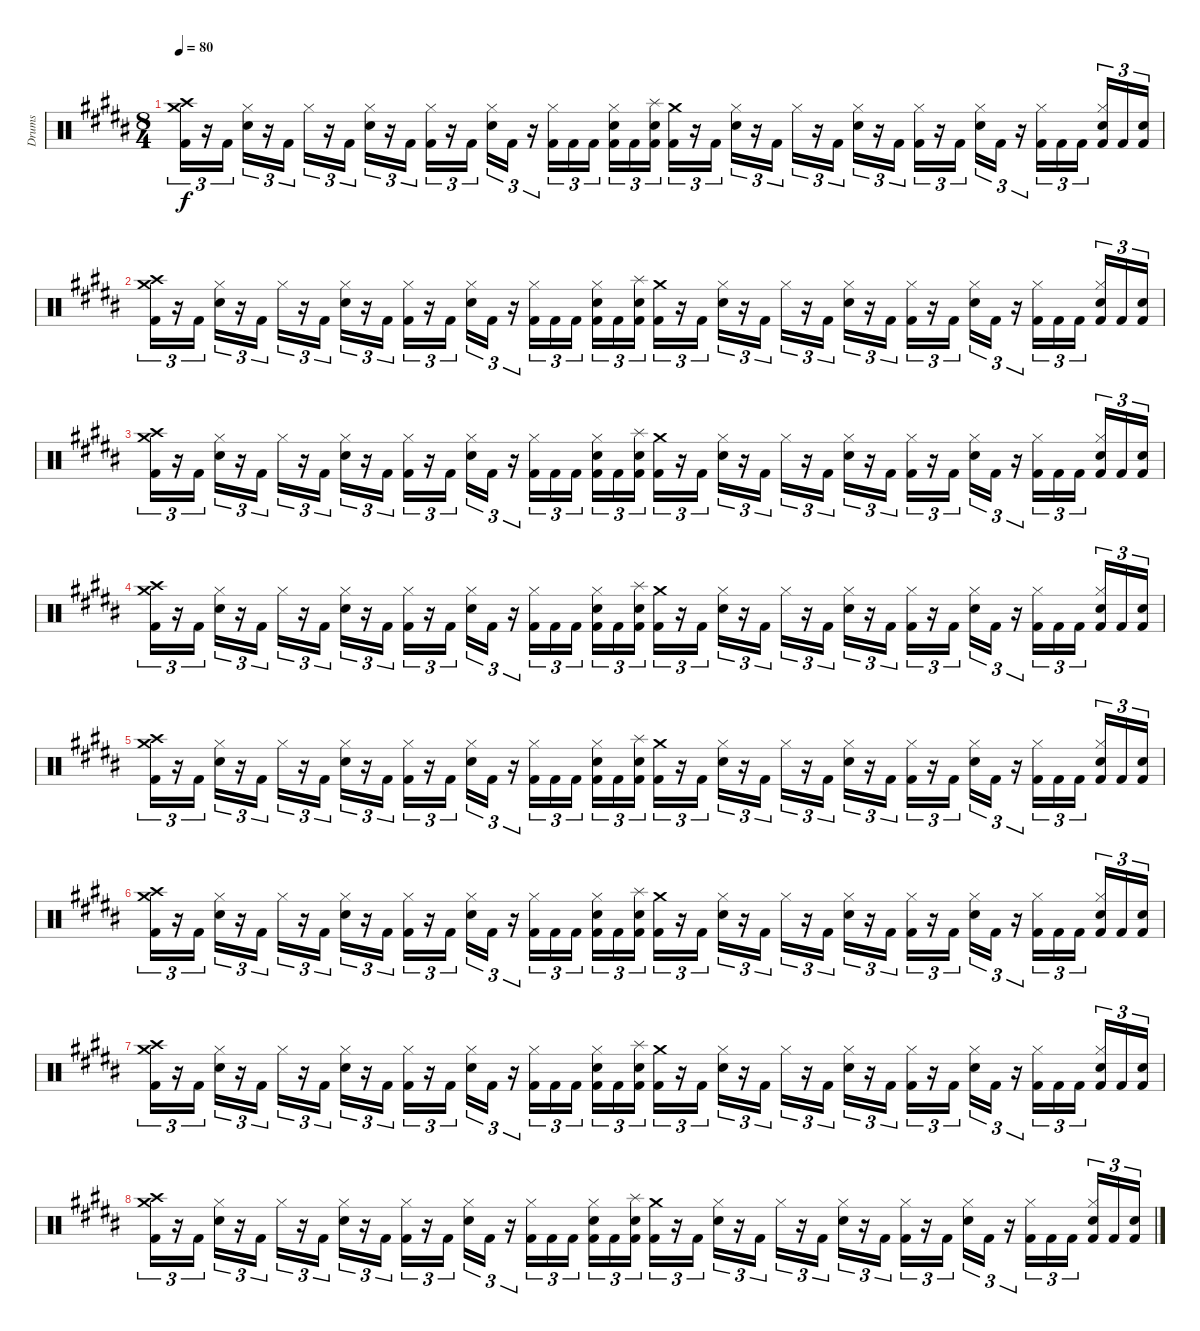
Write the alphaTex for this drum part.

\track ("Drums" "Drums") {instrument percussion}
\staff {score}
\articulation defaults
\ts (8 4)
\tempo 80
\clef neutral
\ks g#minor
("Crash medium (hit)" "Crash high (hit)" "Kick (hit) 2").16{tu (3 2) dy f} r.16{tu (3 2)} "Kick (hit) 2".16{tu (3 2)} ("Hi-Hat (closed)" "Snare (hit) 2").16{tu (3 2)} r.16{tu (3 2)} "Kick (hit) 2".16{tu (3 2)} "Hi-Hat (closed)".16{tu (3 2)} r.16{tu (3 2)} "Kick (hit) 2".16{tu (3 2)} ("Hi-Hat (closed)" "Snare (hit) 2").16{tu (3 2)} r.16{tu (3 2)} "Kick (hit) 2".16{tu (3 2)} ("Hi-Hat (closed)" "Kick (hit) 2").16{tu (3 2)} r.16{tu (3 2)} "Kick (hit) 2".16{tu (3 2)} ("Hi-Hat (closed)" "Snare (hit) 2").16{tu (3 2)} "Kick (hit) 2".16{tu (3 2)} r.16{tu (3 2)} ("Hi-Hat (closed)" "Kick (hit) 2").16{tu (3 2)} "Kick (hit) 2".16{tu (3 2)} "Kick (hit) 2".16{tu (3 2)} ("Hi-Hat (closed)" "Snare (hit) 2" "Kick (hit) 2").16{tu (3 2)} "Kick (hit) 2".16{tu (3 2)} ("Splash (hit)" "Snare (hit) 2" "Kick (hit) 2").16{tu (3 2)} ("Crash medium (hit)" "Kick (hit) 2").16{tu (3 2)} r.16{tu (3 2)} "Kick (hit) 2".16{tu (3 2)} ("Hi-Hat (closed)" "Snare (hit) 2").16{tu (3 2)} r.16{tu (3 2)} "Kick (hit) 2".16{tu (3 2)} "Hi-Hat (closed)".16{tu (3 2)} r.16{tu (3 2)} "Kick (hit) 2".16{tu (3 2)} ("Hi-Hat (closed)" "Snare (hit) 2").16{tu (3 2)} r.16{tu (3 2)} "Kick (hit) 2".16{tu (3 2)} ("Hi-Hat (closed)" "Kick (hit) 2").16{tu (3 2)} r.16{tu (3 2)} "Kick (hit) 2".16{tu (3 2)} ("Hi-Hat (closed)" "Snare (hit) 2").16{tu (3 2)} "Kick (hit) 2".16{tu (3 2)} r.16{tu (3 2)} ("Hi-Hat (closed)" "Kick (hit) 2").16{tu (3 2)} "Kick (hit) 2".16{tu (3 2)} "Kick (hit) 2".16{tu (3 2)} ("Hi-Hat (closed)" "Snare (hit) 2" "Kick (hit) 2").16{tu (3 2)} "Kick (hit) 2".16{tu (3 2)} ("Snare (hit) 2" "Kick (hit) 2").16{tu (3 2)} |
("Crash medium (hit)" "Crash high (hit)" "Kick (hit) 2").16{tu (3 2)} r.16{tu (3 2)} "Kick (hit) 2".16{tu (3 2)} ("Hi-Hat (closed)" "Snare (hit) 2").16{tu (3 2)} r.16{tu (3 2)} "Kick (hit) 2".16{tu (3 2)} "Hi-Hat (closed)".16{tu (3 2)} r.16{tu (3 2)} "Kick (hit) 2".16{tu (3 2)} ("Hi-Hat (closed)" "Snare (hit) 2").16{tu (3 2)} r.16{tu (3 2)} "Kick (hit) 2".16{tu (3 2)} ("Hi-Hat (closed)" "Kick (hit) 2").16{tu (3 2)} r.16{tu (3 2)} "Kick (hit) 2".16{tu (3 2)} ("Hi-Hat (closed)" "Snare (hit) 2").16{tu (3 2)} "Kick (hit) 2".16{tu (3 2)} r.16{tu (3 2)} ("Hi-Hat (closed)" "Kick (hit) 2").16{tu (3 2)} "Kick (hit) 2".16{tu (3 2)} "Kick (hit) 2".16{tu (3 2)} ("Hi-Hat (closed)" "Snare (hit) 2" "Kick (hit) 2").16{tu (3 2)} "Kick (hit) 2".16{tu (3 2)} ("Splash (hit)" "Snare (hit) 2" "Kick (hit) 2").16{tu (3 2)} ("Crash medium (hit)" "Kick (hit) 2").16{tu (3 2)} r.16{tu (3 2)} "Kick (hit) 2".16{tu (3 2)} ("Hi-Hat (closed)" "Snare (hit) 2").16{tu (3 2)} r.16{tu (3 2)} "Kick (hit) 2".16{tu (3 2)} "Hi-Hat (closed)".16{tu (3 2)} r.16{tu (3 2)} "Kick (hit) 2".16{tu (3 2)} ("Hi-Hat (closed)" "Snare (hit) 2").16{tu (3 2)} r.16{tu (3 2)} "Kick (hit) 2".16{tu (3 2)} ("Hi-Hat (closed)" "Kick (hit) 2").16{tu (3 2)} r.16{tu (3 2)} "Kick (hit) 2".16{tu (3 2)} ("Hi-Hat (closed)" "Snare (hit) 2").16{tu (3 2)} "Kick (hit) 2".16{tu (3 2)} r.16{tu (3 2)} ("Hi-Hat (closed)" "Kick (hit) 2").16{tu (3 2)} "Kick (hit) 2".16{tu (3 2)} "Kick (hit) 2".16{tu (3 2)} ("Hi-Hat (closed)" "Snare (hit) 2" "Kick (hit) 2").16{tu (3 2)} "Kick (hit) 2".16{tu (3 2)} ("Snare (hit) 2" "Kick (hit) 2").16{tu (3 2)} |
("Crash medium (hit)" "Crash high (hit)" "Kick (hit) 2").16{tu (3 2)} r.16{tu (3 2)} "Kick (hit) 2".16{tu (3 2)} ("Hi-Hat (closed)" "Snare (hit) 2").16{tu (3 2)} r.16{tu (3 2)} "Kick (hit) 2".16{tu (3 2)} "Hi-Hat (closed)".16{tu (3 2)} r.16{tu (3 2)} "Kick (hit) 2".16{tu (3 2)} ("Hi-Hat (closed)" "Snare (hit) 2").16{tu (3 2)} r.16{tu (3 2)} "Kick (hit) 2".16{tu (3 2)} ("Hi-Hat (closed)" "Kick (hit) 2").16{tu (3 2)} r.16{tu (3 2)} "Kick (hit) 2".16{tu (3 2)} ("Hi-Hat (closed)" "Snare (hit) 2").16{tu (3 2)} "Kick (hit) 2".16{tu (3 2)} r.16{tu (3 2)} ("Hi-Hat (closed)" "Kick (hit) 2").16{tu (3 2)} "Kick (hit) 2".16{tu (3 2)} "Kick (hit) 2".16{tu (3 2)} ("Hi-Hat (closed)" "Snare (hit) 2" "Kick (hit) 2").16{tu (3 2)} "Kick (hit) 2".16{tu (3 2)} ("Splash (hit)" "Snare (hit) 2" "Kick (hit) 2").16{tu (3 2)} ("Crash medium (hit)" "Kick (hit) 2").16{tu (3 2)} r.16{tu (3 2)} "Kick (hit) 2".16{tu (3 2)} ("Hi-Hat (closed)" "Snare (hit) 2").16{tu (3 2)} r.16{tu (3 2)} "Kick (hit) 2".16{tu (3 2)} "Hi-Hat (closed)".16{tu (3 2)} r.16{tu (3 2)} "Kick (hit) 2".16{tu (3 2)} ("Hi-Hat (closed)" "Snare (hit) 2").16{tu (3 2)} r.16{tu (3 2)} "Kick (hit) 2".16{tu (3 2)} ("Hi-Hat (closed)" "Kick (hit) 2").16{tu (3 2)} r.16{tu (3 2)} "Kick (hit) 2".16{tu (3 2)} ("Hi-Hat (closed)" "Snare (hit) 2").16{tu (3 2)} "Kick (hit) 2".16{tu (3 2)} r.16{tu (3 2)} ("Hi-Hat (closed)" "Kick (hit) 2").16{tu (3 2)} "Kick (hit) 2".16{tu (3 2)} "Kick (hit) 2".16{tu (3 2)} ("Hi-Hat (closed)" "Snare (hit) 2" "Kick (hit) 2").16{tu (3 2)} "Kick (hit) 2".16{tu (3 2)} ("Snare (hit) 2" "Kick (hit) 2").16{tu (3 2)} |
("Crash medium (hit)" "Crash high (hit)" "Kick (hit) 2").16{tu (3 2)} r.16{tu (3 2)} "Kick (hit) 2".16{tu (3 2)} ("Hi-Hat (closed)" "Snare (hit) 2").16{tu (3 2)} r.16{tu (3 2)} "Kick (hit) 2".16{tu (3 2)} "Hi-Hat (closed)".16{tu (3 2)} r.16{tu (3 2)} "Kick (hit) 2".16{tu (3 2)} ("Hi-Hat (closed)" "Snare (hit) 2").16{tu (3 2)} r.16{tu (3 2)} "Kick (hit) 2".16{tu (3 2)} ("Hi-Hat (closed)" "Kick (hit) 2").16{tu (3 2)} r.16{tu (3 2)} "Kick (hit) 2".16{tu (3 2)} ("Hi-Hat (closed)" "Snare (hit) 2").16{tu (3 2)} "Kick (hit) 2".16{tu (3 2)} r.16{tu (3 2)} ("Hi-Hat (closed)" "Kick (hit) 2").16{tu (3 2)} "Kick (hit) 2".16{tu (3 2)} "Kick (hit) 2".16{tu (3 2)} ("Hi-Hat (closed)" "Snare (hit) 2" "Kick (hit) 2").16{tu (3 2)} "Kick (hit) 2".16{tu (3 2)} ("Splash (hit)" "Snare (hit) 2" "Kick (hit) 2").16{tu (3 2)} ("Crash medium (hit)" "Kick (hit) 2").16{tu (3 2)} r.16{tu (3 2)} "Kick (hit) 2".16{tu (3 2)} ("Hi-Hat (closed)" "Snare (hit) 2").16{tu (3 2)} r.16{tu (3 2)} "Kick (hit) 2".16{tu (3 2)} "Hi-Hat (closed)".16{tu (3 2)} r.16{tu (3 2)} "Kick (hit) 2".16{tu (3 2)} ("Hi-Hat (closed)" "Snare (hit) 2").16{tu (3 2)} r.16{tu (3 2)} "Kick (hit) 2".16{tu (3 2)} ("Hi-Hat (closed)" "Kick (hit) 2").16{tu (3 2)} r.16{tu (3 2)} "Kick (hit) 2".16{tu (3 2)} ("Hi-Hat (closed)" "Snare (hit) 2").16{tu (3 2)} "Kick (hit) 2".16{tu (3 2)} r.16{tu (3 2)} ("Hi-Hat (closed)" "Kick (hit) 2").16{tu (3 2)} "Kick (hit) 2".16{tu (3 2)} "Kick (hit) 2".16{tu (3 2)} ("Hi-Hat (closed)" "Snare (hit) 2" "Kick (hit) 2").16{tu (3 2)} "Kick (hit) 2".16{tu (3 2)} ("Snare (hit) 2" "Kick (hit) 2").16{tu (3 2)} |
("Crash medium (hit)" "Crash high (hit)" "Kick (hit) 2").16{tu (3 2)} r.16{tu (3 2)} "Kick (hit) 2".16{tu (3 2)} ("Hi-Hat (closed)" "Snare (hit) 2").16{tu (3 2)} r.16{tu (3 2)} "Kick (hit) 2".16{tu (3 2)} "Hi-Hat (closed)".16{tu (3 2)} r.16{tu (3 2)} "Kick (hit) 2".16{tu (3 2)} ("Hi-Hat (closed)" "Snare (hit) 2").16{tu (3 2)} r.16{tu (3 2)} "Kick (hit) 2".16{tu (3 2)} ("Hi-Hat (closed)" "Kick (hit) 2").16{tu (3 2)} r.16{tu (3 2)} "Kick (hit) 2".16{tu (3 2)} ("Hi-Hat (closed)" "Snare (hit) 2").16{tu (3 2)} "Kick (hit) 2".16{tu (3 2)} r.16{tu (3 2)} ("Hi-Hat (closed)" "Kick (hit) 2").16{tu (3 2)} "Kick (hit) 2".16{tu (3 2)} "Kick (hit) 2".16{tu (3 2)} ("Hi-Hat (closed)" "Snare (hit) 2" "Kick (hit) 2").16{tu (3 2)} "Kick (hit) 2".16{tu (3 2)} ("Splash (hit)" "Snare (hit) 2" "Kick (hit) 2").16{tu (3 2)} ("Crash medium (hit)" "Kick (hit) 2").16{tu (3 2)} r.16{tu (3 2)} "Kick (hit) 2".16{tu (3 2)} ("Hi-Hat (closed)" "Snare (hit) 2").16{tu (3 2)} r.16{tu (3 2)} "Kick (hit) 2".16{tu (3 2)} "Hi-Hat (closed)".16{tu (3 2)} r.16{tu (3 2)} "Kick (hit) 2".16{tu (3 2)} ("Hi-Hat (closed)" "Snare (hit) 2").16{tu (3 2)} r.16{tu (3 2)} "Kick (hit) 2".16{tu (3 2)} ("Hi-Hat (closed)" "Kick (hit) 2").16{tu (3 2)} r.16{tu (3 2)} "Kick (hit) 2".16{tu (3 2)} ("Hi-Hat (closed)" "Snare (hit) 2").16{tu (3 2)} "Kick (hit) 2".16{tu (3 2)} r.16{tu (3 2)} ("Hi-Hat (closed)" "Kick (hit) 2").16{tu (3 2)} "Kick (hit) 2".16{tu (3 2)} "Kick (hit) 2".16{tu (3 2)} ("Hi-Hat (closed)" "Snare (hit) 2" "Kick (hit) 2").16{tu (3 2)} "Kick (hit) 2".16{tu (3 2)} ("Snare (hit) 2" "Kick (hit) 2").16{tu (3 2)} |
("Crash medium (hit)" "Crash high (hit)" "Kick (hit) 2").16{tu (3 2)} r.16{tu (3 2)} "Kick (hit) 2".16{tu (3 2)} ("Hi-Hat (closed)" "Snare (hit) 2").16{tu (3 2)} r.16{tu (3 2)} "Kick (hit) 2".16{tu (3 2)} "Hi-Hat (closed)".16{tu (3 2)} r.16{tu (3 2)} "Kick (hit) 2".16{tu (3 2)} ("Hi-Hat (closed)" "Snare (hit) 2").16{tu (3 2)} r.16{tu (3 2)} "Kick (hit) 2".16{tu (3 2)} ("Hi-Hat (closed)" "Kick (hit) 2").16{tu (3 2)} r.16{tu (3 2)} "Kick (hit) 2".16{tu (3 2)} ("Hi-Hat (closed)" "Snare (hit) 2").16{tu (3 2)} "Kick (hit) 2".16{tu (3 2)} r.16{tu (3 2)} ("Hi-Hat (closed)" "Kick (hit) 2").16{tu (3 2)} "Kick (hit) 2".16{tu (3 2)} "Kick (hit) 2".16{tu (3 2)} ("Hi-Hat (closed)" "Snare (hit) 2" "Kick (hit) 2").16{tu (3 2)} "Kick (hit) 2".16{tu (3 2)} ("Splash (hit)" "Snare (hit) 2" "Kick (hit) 2").16{tu (3 2)} ("Crash medium (hit)" "Kick (hit) 2").16{tu (3 2)} r.16{tu (3 2)} "Kick (hit) 2".16{tu (3 2)} ("Hi-Hat (closed)" "Snare (hit) 2").16{tu (3 2)} r.16{tu (3 2)} "Kick (hit) 2".16{tu (3 2)} "Hi-Hat (closed)".16{tu (3 2)} r.16{tu (3 2)} "Kick (hit) 2".16{tu (3 2)} ("Hi-Hat (closed)" "Snare (hit) 2").16{tu (3 2)} r.16{tu (3 2)} "Kick (hit) 2".16{tu (3 2)} ("Hi-Hat (closed)" "Kick (hit) 2").16{tu (3 2)} r.16{tu (3 2)} "Kick (hit) 2".16{tu (3 2)} ("Hi-Hat (closed)" "Snare (hit) 2").16{tu (3 2)} "Kick (hit) 2".16{tu (3 2)} r.16{tu (3 2)} ("Hi-Hat (closed)" "Kick (hit) 2").16{tu (3 2)} "Kick (hit) 2".16{tu (3 2)} "Kick (hit) 2".16{tu (3 2)} ("Hi-Hat (closed)" "Snare (hit) 2" "Kick (hit) 2").16{tu (3 2)} "Kick (hit) 2".16{tu (3 2)} ("Snare (hit) 2" "Kick (hit) 2").16{tu (3 2)} |
("Crash medium (hit)" "Crash high (hit)" "Kick (hit) 2").16{tu (3 2)} r.16{tu (3 2)} "Kick (hit) 2".16{tu (3 2)} ("Hi-Hat (closed)" "Snare (hit) 2").16{tu (3 2)} r.16{tu (3 2)} "Kick (hit) 2".16{tu (3 2)} "Hi-Hat (closed)".16{tu (3 2)} r.16{tu (3 2)} "Kick (hit) 2".16{tu (3 2)} ("Hi-Hat (closed)" "Snare (hit) 2").16{tu (3 2)} r.16{tu (3 2)} "Kick (hit) 2".16{tu (3 2)} ("Hi-Hat (closed)" "Kick (hit) 2").16{tu (3 2)} r.16{tu (3 2)} "Kick (hit) 2".16{tu (3 2)} ("Hi-Hat (closed)" "Snare (hit) 2").16{tu (3 2)} "Kick (hit) 2".16{tu (3 2)} r.16{tu (3 2)} ("Hi-Hat (closed)" "Kick (hit) 2").16{tu (3 2)} "Kick (hit) 2".16{tu (3 2)} "Kick (hit) 2".16{tu (3 2)} ("Hi-Hat (closed)" "Snare (hit) 2" "Kick (hit) 2").16{tu (3 2)} "Kick (hit) 2".16{tu (3 2)} ("Splash (hit)" "Snare (hit) 2" "Kick (hit) 2").16{tu (3 2)} ("Crash medium (hit)" "Kick (hit) 2").16{tu (3 2)} r.16{tu (3 2)} "Kick (hit) 2".16{tu (3 2)} ("Hi-Hat (closed)" "Snare (hit) 2").16{tu (3 2)} r.16{tu (3 2)} "Kick (hit) 2".16{tu (3 2)} "Hi-Hat (closed)".16{tu (3 2)} r.16{tu (3 2)} "Kick (hit) 2".16{tu (3 2)} ("Hi-Hat (closed)" "Snare (hit) 2").16{tu (3 2)} r.16{tu (3 2)} "Kick (hit) 2".16{tu (3 2)} ("Hi-Hat (closed)" "Kick (hit) 2").16{tu (3 2)} r.16{tu (3 2)} "Kick (hit) 2".16{tu (3 2)} ("Hi-Hat (closed)" "Snare (hit) 2").16{tu (3 2)} "Kick (hit) 2".16{tu (3 2)} r.16{tu (3 2)} ("Hi-Hat (closed)" "Kick (hit) 2").16{tu (3 2)} "Kick (hit) 2".16{tu (3 2)} "Kick (hit) 2".16{tu (3 2)} ("Hi-Hat (closed)" "Snare (hit) 2" "Kick (hit) 2").16{tu (3 2)} "Kick (hit) 2".16{tu (3 2)} ("Snare (hit) 2" "Kick (hit) 2").16{tu (3 2)} |
("Crash medium (hit)" "Crash high (hit)" "Kick (hit) 2").16{tu (3 2)} r.16{tu (3 2)} "Kick (hit) 2".16{tu (3 2)} ("Hi-Hat (closed)" "Snare (hit) 2").16{tu (3 2)} r.16{tu (3 2)} "Kick (hit) 2".16{tu (3 2)} "Hi-Hat (closed)".16{tu (3 2)} r.16{tu (3 2)} "Kick (hit) 2".16{tu (3 2)} ("Hi-Hat (closed)" "Snare (hit) 2").16{tu (3 2)} r.16{tu (3 2)} "Kick (hit) 2".16{tu (3 2)} ("Hi-Hat (closed)" "Kick (hit) 2").16{tu (3 2)} r.16{tu (3 2)} "Kick (hit) 2".16{tu (3 2)} ("Hi-Hat (closed)" "Snare (hit) 2").16{tu (3 2)} "Kick (hit) 2".16{tu (3 2)} r.16{tu (3 2)} ("Hi-Hat (closed)" "Kick (hit) 2").16{tu (3 2)} "Kick (hit) 2".16{tu (3 2)} "Kick (hit) 2".16{tu (3 2)} ("Hi-Hat (closed)" "Snare (hit) 2" "Kick (hit) 2").16{tu (3 2)} "Kick (hit) 2".16{tu (3 2)} ("Splash (hit)" "Snare (hit) 2" "Kick (hit) 2").16{tu (3 2)} ("Crash medium (hit)" "Kick (hit) 2").16{tu (3 2)} r.16{tu (3 2)} "Kick (hit) 2".16{tu (3 2)} ("Hi-Hat (closed)" "Snare (hit) 2").16{tu (3 2)} r.16{tu (3 2)} "Kick (hit) 2".16{tu (3 2)} "Hi-Hat (closed)".16{tu (3 2)} r.16{tu (3 2)} "Kick (hit) 2".16{tu (3 2)} ("Hi-Hat (closed)" "Snare (hit) 2").16{tu (3 2)} r.16{tu (3 2)} "Kick (hit) 2".16{tu (3 2)} ("Hi-Hat (closed)" "Kick (hit) 2").16{tu (3 2)} r.16{tu (3 2)} "Kick (hit) 2".16{tu (3 2)} ("Hi-Hat (closed)" "Snare (hit) 2").16{tu (3 2)} "Kick (hit) 2".16{tu (3 2)} r.16{tu (3 2)} ("Hi-Hat (closed)" "Kick (hit) 2").16{tu (3 2)} "Kick (hit) 2".16{tu (3 2)} "Kick (hit) 2".16{tu (3 2)} ("Hi-Hat (closed)" "Snare (hit) 2" "Kick (hit) 2").16{tu (3 2)} "Kick (hit) 2".16{tu (3 2)} ("Snare (hit) 2" "Kick (hit) 2").16{tu (3 2)}
